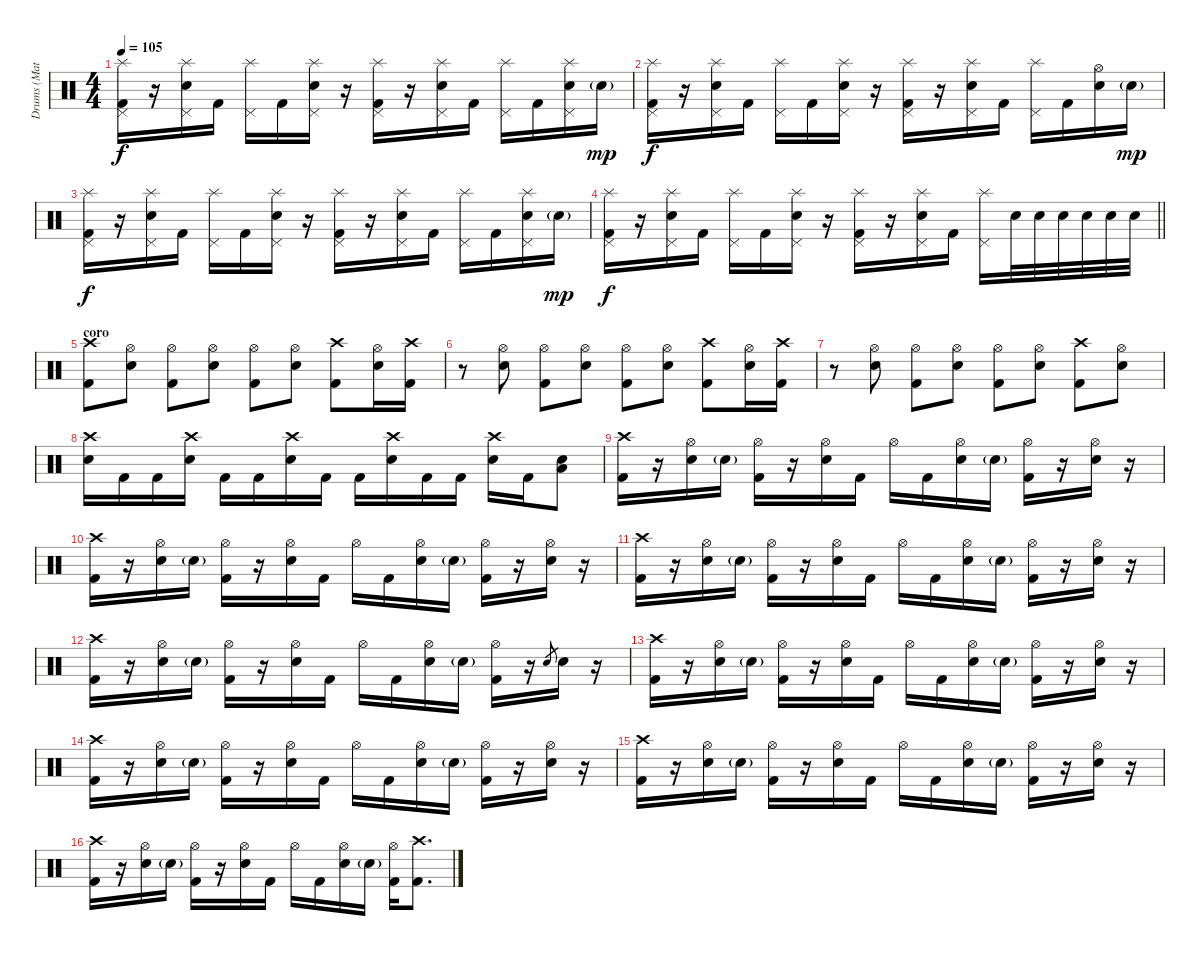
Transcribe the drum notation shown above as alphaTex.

\track ("Drums (Matt Sorum)" "Drums (Mat") {instrument percussion}
\staff {score}
\articulation defaults
\ts (4 4)
\tempo 105
\clef neutral
\ks c
("Splash (hit)" "Pedal Hi-Hat (hit)" "Kick (hit) 2").16{dy f} r.16 ("Splash (hit)" "Pedal Hi-Hat (hit)" "Electric Snare (hit)").16 "Kick (hit) 2".16 ("Splash (hit)" "Pedal Hi-Hat (hit)").16 "Kick (hit) 2".16 ("Splash (hit)" "Pedal Hi-Hat (hit)" "Electric Snare (hit)").16 r.16 ("Splash (hit)" "Pedal Hi-Hat (hit)" "Kick (hit) 2").16 r.16 ("Splash (hit)" "Pedal Hi-Hat (hit)" "Electric Snare (hit)").16 "Kick (hit) 2".16 ("Splash (hit)" "Pedal Hi-Hat (hit)").16 "Kick (hit) 2".16 ("Splash (hit)" "Pedal Hi-Hat (hit)" "Electric Snare (hit)").16 "Electric Snare (hit)"{g}.16{dy mp} |
("Splash (hit)" "Pedal Hi-Hat (hit)" "Kick (hit) 2").16{dy f} r.16 ("Splash (hit)" "Pedal Hi-Hat (hit)" "Electric Snare (hit)").16 "Kick (hit) 2".16 ("Splash (hit)" "Pedal Hi-Hat (hit)").16 "Kick (hit) 2".16 ("Splash (hit)" "Pedal Hi-Hat (hit)" "Electric Snare (hit)").16 r.16 ("Splash (hit)" "Pedal Hi-Hat (hit)" "Kick (hit) 2").16 r.16 ("Splash (hit)" "Pedal Hi-Hat (hit)" "Electric Snare (hit)").16 "Kick (hit) 2".16 ("Splash (hit)" "Pedal Hi-Hat (hit)").16 "Kick (hit) 2".16 ("Hi-Hat (open)" "Electric Snare (hit)").16 "Electric Snare (hit)"{g}.16{dy mp} |
("Splash (hit)" "Pedal Hi-Hat (hit)" "Kick (hit) 2").16{dy f} r.16 ("Splash (hit)" "Pedal Hi-Hat (hit)" "Electric Snare (hit)").16 "Kick (hit) 2".16 ("Splash (hit)" "Pedal Hi-Hat (hit)").16 "Kick (hit) 2".16 ("Splash (hit)" "Pedal Hi-Hat (hit)" "Electric Snare (hit)").16 r.16 ("Splash (hit)" "Pedal Hi-Hat (hit)" "Kick (hit) 2").16 r.16 ("Splash (hit)" "Pedal Hi-Hat (hit)" "Electric Snare (hit)").16 "Kick (hit) 2".16 ("Splash (hit)" "Pedal Hi-Hat (hit)").16 "Kick (hit) 2".16 ("Splash (hit)" "Pedal Hi-Hat (hit)" "Electric Snare (hit)").16 "Electric Snare (hit)"{g}.16{dy mp} |
\barLineRight lightlight
("Splash (hit)" "Pedal Hi-Hat (hit)" "Kick (hit) 2").16{dy f} r.16 ("Splash (hit)" "Pedal Hi-Hat (hit)" "Electric Snare (hit)").16 "Kick (hit) 2".16 ("Splash (hit)" "Pedal Hi-Hat (hit)").16 "Kick (hit) 2".16 ("Splash (hit)" "Pedal Hi-Hat (hit)" "Electric Snare (hit)").16 r.16 ("Splash (hit)" "Pedal Hi-Hat (hit)" "Kick (hit) 2").16 r.16 ("Splash (hit)" "Pedal Hi-Hat (hit)" "Electric Snare (hit)").16 "Kick (hit) 2".16 ("Splash (hit)" "Pedal Hi-Hat (hit)").16 "Electric Snare (hit)".32 "Electric Snare (hit)".32 "Electric Snare (hit)".32 "Electric Snare (hit)".32 "Electric Snare (hit)".32 "Electric Snare (hit)".32 |
\section ("" "coro")
("Crash high (hit)" "Kick (hit) 2").8 ("Hi-Hat (open)" "Electric Snare (hit)").8 ("Hi-Hat (open)" "Kick (hit) 2").8 ("Hi-Hat (open)" "Electric Snare (hit)").8 ("Hi-Hat (open)" "Kick (hit) 2").8 ("Hi-Hat (open)" "Electric Snare (hit)").8 ("Crash high (hit)" "Kick (hit) 2").8 ("Hi-Hat (open)" "Electric Snare (hit)").16 ("Crash high (hit)" "Kick (hit) 2").16 |
r.8 ("Hi-Hat (open)" "Electric Snare (hit)").8 ("Hi-Hat (open)" "Kick (hit) 2").8 ("Hi-Hat (open)" "Electric Snare (hit)").8 ("Hi-Hat (open)" "Kick (hit) 2").8 ("Hi-Hat (open)" "Electric Snare (hit)").8 ("Crash high (hit)" "Kick (hit) 2").8 ("Hi-Hat (open)" "Electric Snare (hit)").16 ("Crash high (hit)" "Kick (hit) 2").16 |
r.8 ("Hi-Hat (open)" "Electric Snare (hit)").8 ("Hi-Hat (open)" "Kick (hit) 2").8 ("Hi-Hat (open)" "Electric Snare (hit)").8 ("Hi-Hat (open)" "Kick (hit) 2").8 ("Hi-Hat (open)" "Electric Snare (hit)").8 ("Crash high (hit)" "Kick (hit) 2").8 ("Hi-Hat (open)" "Electric Snare (hit)").8 |
("Crash high (hit)" "Electric Snare (hit)").16 "Kick (hit) 2".16 "Kick (hit) 2".16 ("Crash high (hit)" "Electric Snare (hit)").16 "Kick (hit) 2".16 "Kick (hit) 2".16 ("Crash high (hit)" "Electric Snare (hit)").16 "Kick (hit) 2".16 "Kick (hit) 2".16 ("Crash high (hit)" "Electric Snare (hit)").16 "Kick (hit) 2".16 "Kick (hit) 2".16 ("Crash high (hit)" "Electric Snare (hit)").16 "Kick (hit) 2".16 ("Low Floor Tom (hit)" "Electric Snare (hit)").8 |
("Crash high (hit)" "Kick (hit) 2").16 r.16 ("Hi-Hat (open)" "Electric Snare (hit)").16 "Electric Snare (hit)"{g}.16 ("Hi-Hat (open)" "Kick (hit) 2").16 r.16 ("Hi-Hat (open)" "Electric Snare (hit)").16 "Kick (hit) 2".16 "Hi-Hat (open)".16 "Kick (hit) 2".16 ("Hi-Hat (open)" "Electric Snare (hit)").16 "Electric Snare (hit)"{g}.16 ("Hi-Hat (open)" "Kick (hit) 2").16 r.16 ("Hi-Hat (open)" "Electric Snare (hit)").16 r.16 |
("Crash high (hit)" "Kick (hit) 2").16 r.16 ("Hi-Hat (open)" "Electric Snare (hit)").16 "Electric Snare (hit)"{g}.16 ("Hi-Hat (open)" "Kick (hit) 2").16 r.16 ("Hi-Hat (open)" "Electric Snare (hit)").16 "Kick (hit) 2".16 "Hi-Hat (open)".16 "Kick (hit) 2".16 ("Hi-Hat (open)" "Electric Snare (hit)").16 "Electric Snare (hit)"{g}.16 ("Hi-Hat (open)" "Kick (hit) 2").16 r.16 ("Hi-Hat (open)" "Electric Snare (hit)").16 r.16 |
("Crash high (hit)" "Kick (hit) 2").16 r.16 ("Hi-Hat (open)" "Electric Snare (hit)").16 "Electric Snare (hit)"{g}.16 ("Hi-Hat (open)" "Kick (hit) 2").16 r.16 ("Hi-Hat (open)" "Electric Snare (hit)").16 "Kick (hit) 2".16 "Hi-Hat (open)".16 "Kick (hit) 2".16 ("Hi-Hat (open)" "Electric Snare (hit)").16 "Electric Snare (hit)"{g}.16 ("Hi-Hat (open)" "Kick (hit) 2").16 r.16 ("Hi-Hat (open)" "Electric Snare (hit)").16 r.16 |
("Crash high (hit)" "Kick (hit) 2").16 r.16 ("Hi-Hat (open)" "Electric Snare (hit)").16 "Electric Snare (hit)"{g}.16 ("Hi-Hat (open)" "Kick (hit) 2").16 r.16 ("Hi-Hat (open)" "Electric Snare (hit)").16 "Kick (hit) 2".16 "Hi-Hat (open)".16 "Kick (hit) 2".16 ("Hi-Hat (open)" "Electric Snare (hit)").16 "Electric Snare (hit)"{g}.16 ("Hi-Hat (open)" "Kick (hit) 2").16 r.16 "Electric Snare (hit)".8{gr} "Electric Snare (hit)".16 r.16 |
("Crash high (hit)" "Kick (hit) 2").16 r.16 ("Hi-Hat (open)" "Electric Snare (hit)").16 "Electric Snare (hit)"{g}.16 ("Hi-Hat (open)" "Kick (hit) 2").16 r.16 ("Hi-Hat (open)" "Electric Snare (hit)").16 "Kick (hit) 2".16 "Hi-Hat (open)".16 "Kick (hit) 2".16 ("Hi-Hat (open)" "Electric Snare (hit)").16 "Electric Snare (hit)"{g}.16 ("Hi-Hat (open)" "Kick (hit) 2").16 r.16 ("Hi-Hat (open)" "Electric Snare (hit)").16 r.16 |
("Crash high (hit)" "Kick (hit) 2").16 r.16 ("Hi-Hat (open)" "Electric Snare (hit)").16 "Electric Snare (hit)"{g}.16 ("Hi-Hat (open)" "Kick (hit) 2").16 r.16 ("Hi-Hat (open)" "Electric Snare (hit)").16 "Kick (hit) 2".16 "Hi-Hat (open)".16 "Kick (hit) 2".16 ("Hi-Hat (open)" "Electric Snare (hit)").16 "Electric Snare (hit)"{g}.16 ("Hi-Hat (open)" "Kick (hit) 2").16 r.16 ("Hi-Hat (open)" "Electric Snare (hit)").16 r.16 |
("Crash high (hit)" "Kick (hit) 2").16 r.16 ("Hi-Hat (open)" "Electric Snare (hit)").16 "Electric Snare (hit)"{g}.16 ("Hi-Hat (open)" "Kick (hit) 2").16 r.16 ("Hi-Hat (open)" "Electric Snare (hit)").16 "Kick (hit) 2".16 "Hi-Hat (open)".16 "Kick (hit) 2".16 ("Hi-Hat (open)" "Electric Snare (hit)").16 "Electric Snare (hit)"{g}.16 ("Hi-Hat (open)" "Kick (hit) 2").16 r.16 ("Hi-Hat (open)" "Electric Snare (hit)").16 r.16 |
("Crash high (hit)" "Kick (hit) 2").16 r.16 ("Hi-Hat (open)" "Electric Snare (hit)").16 "Electric Snare (hit)"{g}.16 ("Hi-Hat (open)" "Kick (hit) 2").16 r.16 ("Hi-Hat (open)" "Electric Snare (hit)").16 "Kick (hit) 2".16 "Hi-Hat (open)".16 "Kick (hit) 2".16 ("Hi-Hat (open)" "Electric Snare (hit)").16 "Electric Snare (hit)"{g}.16 ("Hi-Hat (open)" "Kick (hit) 2").16 ("Crash high (hit)" "Kick (hit) 2").8{d}
